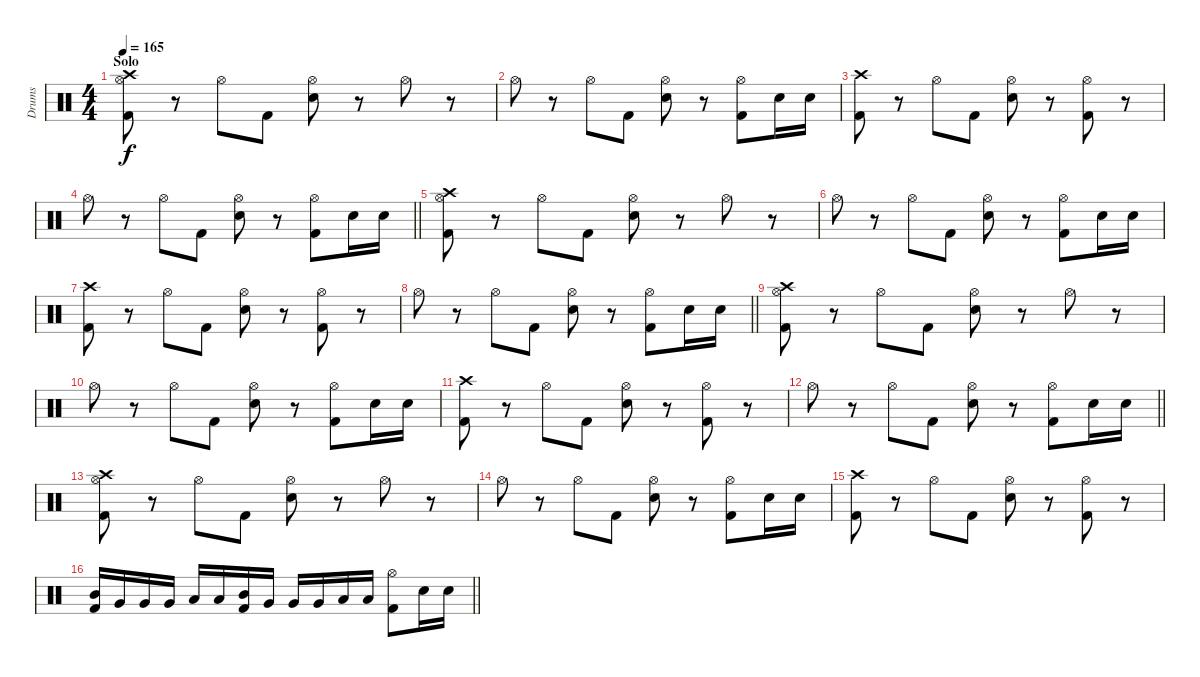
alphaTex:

\track ("Drums" "Drums") {instrument percussion}
\staff {score}
\articulation defaults
\ts (4 4)
\section ("" "Solo")
\tempo 165
\clef neutral
\ks c
("Crash high (hit)" "Hi-Hat (open)" "Kick (hit) 2").8{dy f} r.8 "Hi-Hat (open)".8 "Kick (hit) 2".8 ("Hi-Hat (open)" "Electric Snare (hit)").8 r.8 "Hi-Hat (open)".8 r.8 |
"Hi-Hat (open)".8 r.8 "Hi-Hat (open)".8 "Kick (hit) 2".8 ("Hi-Hat (open)" "Electric Snare (hit)").8 r.8 ("Hi-Hat (open)" "Kick (hit) 2").8 "Electric Snare (hit)".16 "Electric Snare (hit)".16 |
("Crash high (hit)" "Kick (hit) 2").8 r.8 "Hi-Hat (open)".8 "Kick (hit) 2".8 ("Hi-Hat (open)" "Electric Snare (hit)").8 r.8 ("Hi-Hat (open)" "Kick (hit) 2").8 r.8 |
\barLineRight lightlight "Hi-Hat (open)".8
r.8 "Hi-Hat (open)".8 "Kick (hit) 2".8 ("Hi-Hat (open)" "Electric Snare (hit)").8 r.8 ("Hi-Hat (open)" "Kick (hit) 2").8 "Electric Snare (hit)".16 "Electric Snare (hit)".16 |
("Crash high (hit)" "Hi-Hat (open)" "Kick (hit) 2").8 r.8 "Hi-Hat (open)".8 "Kick (hit) 2".8 ("Hi-Hat (open)" "Electric Snare (hit)").8 r.8 "Hi-Hat (open)".8 r.8 |
"Hi-Hat (open)".8 r.8 "Hi-Hat (open)".8 "Kick (hit) 2".8 ("Hi-Hat (open)" "Electric Snare (hit)").8 r.8 ("Hi-Hat (open)" "Kick (hit) 2").8 "Electric Snare (hit)".16 "Electric Snare (hit)".16 |
("Crash high (hit)" "Kick (hit) 2").8 r.8 "Hi-Hat (open)".8 "Kick (hit) 2".8 ("Hi-Hat (open)" "Electric Snare (hit)").8 r.8 ("Hi-Hat (open)" "Kick (hit) 2").8 r.8 |
\barLineRight lightlight "Hi-Hat (open)".8
r.8 "Hi-Hat (open)".8 "Kick (hit) 2".8 ("Hi-Hat (open)" "Electric Snare (hit)").8 r.8 ("Hi-Hat (open)" "Kick (hit) 2").8 "Electric Snare (hit)".16 "Electric Snare (hit)".16 |
("Crash high (hit)" "Hi-Hat (open)" "Kick (hit) 2").8 r.8 "Hi-Hat (open)".8 "Kick (hit) 2".8 ("Hi-Hat (open)" "Electric Snare (hit)").8 r.8 "Hi-Hat (open)".8 r.8 |
"Hi-Hat (open)".8 r.8 "Hi-Hat (open)".8 "Kick (hit) 2".8 ("Hi-Hat (open)" "Electric Snare (hit)").8 r.8 ("Hi-Hat (open)" "Kick (hit) 2").8 "Electric Snare (hit)".16 "Electric Snare (hit)".16 |
("Crash high (hit)" "Kick (hit) 2").8 r.8 "Hi-Hat (open)".8 "Kick (hit) 2".8 ("Hi-Hat (open)" "Electric Snare (hit)").8 r.8 ("Hi-Hat (open)" "Kick (hit) 2").8 r.8 |
\barLineRight lightlight "Hi-Hat (open)".8
r.8 "Hi-Hat (open)".8 "Kick (hit) 2".8 ("Hi-Hat (open)" "Electric Snare (hit)").8 r.8 ("Hi-Hat (open)" "Kick (hit) 2").8 "Electric Snare (hit)".16 "Electric Snare (hit)".16 |
("Crash high (hit)" "Hi-Hat (open)" "Kick (hit) 2").8 r.8 "Hi-Hat (open)".8 "Kick (hit) 2".8 ("Hi-Hat (open)" "Electric Snare (hit)").8 r.8 "Hi-Hat (open)".8 r.8 |
"Hi-Hat (open)".8 r.8 "Hi-Hat (open)".8 "Kick (hit) 2".8 ("Hi-Hat (open)" "Electric Snare (hit)").8 r.8 ("Hi-Hat (open)" "Kick (hit) 2").8 "Electric Snare (hit)".16 "Electric Snare (hit)".16 |
("Crash high (hit)" "Kick (hit) 2").8 r.8 "Hi-Hat (open)".8 "Kick (hit) 2".8 ("Hi-Hat (open)" "Electric Snare (hit)").8 r.8 ("Hi-Hat (open)" "Kick (hit) 2").8 r.8 |
\barLineRight lightlight
("Mid Tom (hit)" "Kick (hit) 2").16 "Very Low Tom (hit)".16 "Very Low Tom (hit)".16 "Very Low Tom (hit)".16 "Low Tom (hit)".16 "Low Tom (hit)".16 ("Mid Tom (hit)" "Kick (hit) 2").16 "Very Low Tom (hit)".16 "Very Low Tom (hit)".16 "Very Low Tom (hit)".16 "Low Tom (hit)".16 "Low Tom (hit)".16 ("Hi-Hat (open)" "Kick (hit) 2").8 "Electric Snare (hit)".16 "Electric Snare (hit)".16
